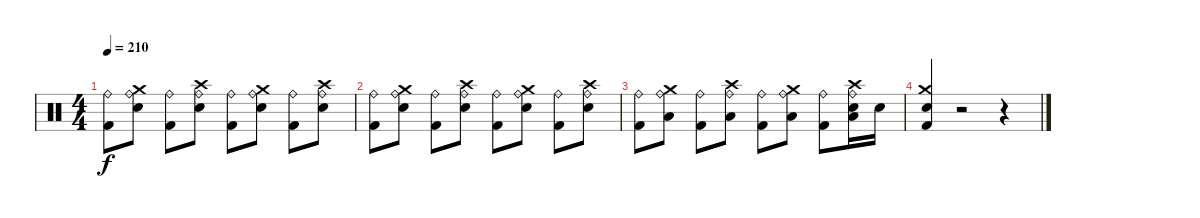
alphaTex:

\track "" {instrument percussion}
\staff {score}
\articulation defaults
\ts (4 4)
\tempo 210
\clef neutral
\ks c
("Ride (bell)" "Kick (hit) 2").8{dy f} ("Crash medium (hit)" "Ride (bell)" "Electric Snare (hit)").8 ("Ride (bell)" "Kick (hit) 2").8 ("Crash high (hit)" "Ride (bell)" "Electric Snare (hit)").8 ("Ride (bell)" "Kick (hit) 2").8 ("Crash medium (hit)" "Ride (bell)" "Electric Snare (hit)").8 ("Ride (bell)" "Kick (hit) 2").8 ("Crash high (hit)" "Ride (bell)" "Electric Snare (hit)").8 |
("Ride (bell)" "Kick (hit) 2").8 ("Crash medium (hit)" "Ride (bell)" "Electric Snare (hit)").8 ("Ride (bell)" "Kick (hit) 2").8 ("Crash high (hit)" "Ride (bell)" "Electric Snare (hit)").8 ("Ride (bell)" "Kick (hit) 2").8 ("Crash medium (hit)" "Ride (bell)" "Electric Snare (hit)").8 ("Ride (bell)" "Kick (hit) 2").8 ("Crash high (hit)" "Ride (bell)" "Electric Snare (hit)").8 |
("Ride (bell)" "Kick (hit) 2").8 ("Crash medium (hit)" "Ride (bell)" "Low Floor Tom (hit)").8 ("Ride (bell)" "Kick (hit) 2").8 ("Crash high (hit)" "Ride (bell)" "Low Floor Tom (hit)").8 ("Ride (bell)" "Kick (hit) 2").8 ("Crash medium (hit)" "Ride (bell)" "Low Floor Tom (hit)").8 ("Ride (bell)" "Kick (hit) 2").8 ("Electric Snare (hit)" "Crash high (hit)" "Ride (bell)" "Low Floor Tom (hit)").16 "Electric Snare (hit)".16 |
("Electric Snare (hit)" "Kick (hit) 2" "Crash medium (hit)").4 r.2 r.4
